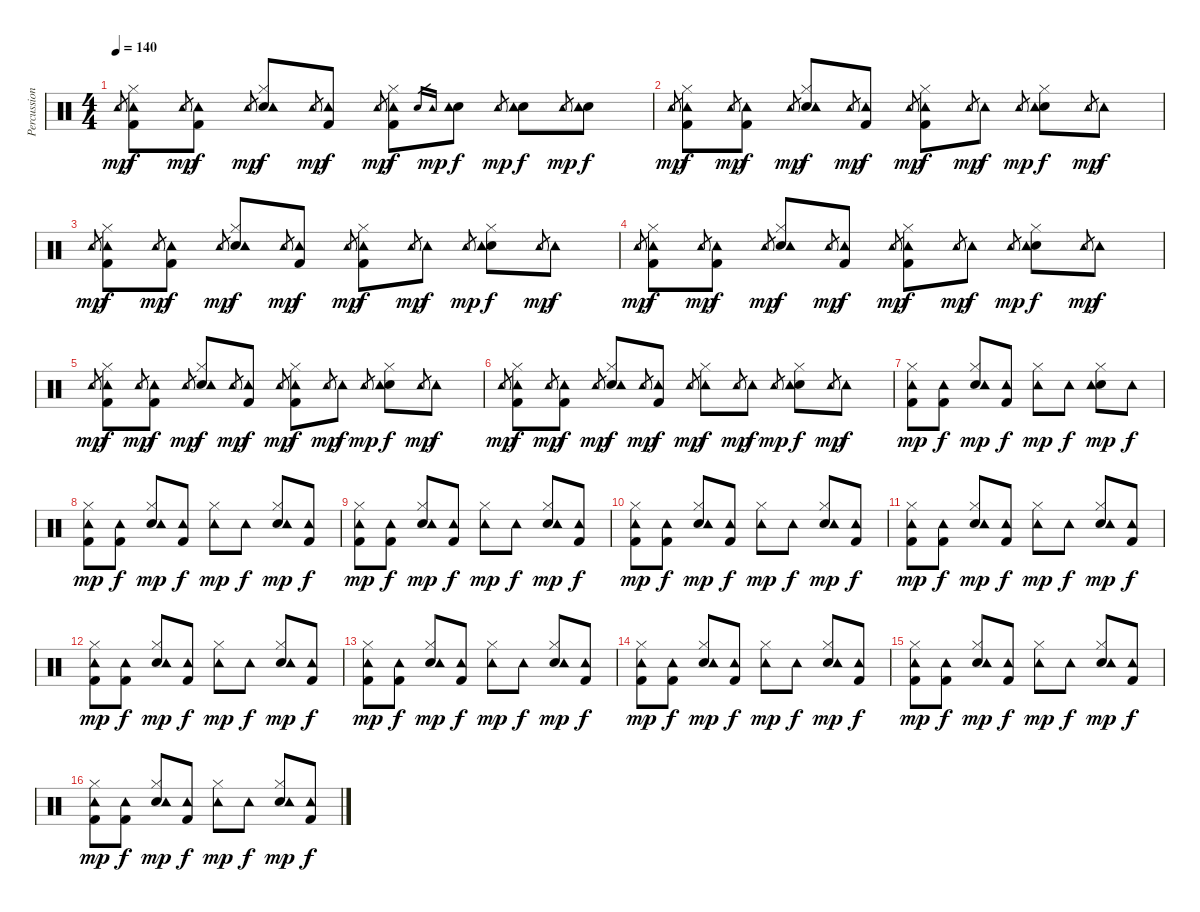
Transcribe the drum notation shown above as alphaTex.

\track ("Percussion" "Percussion") {instrument percussion}
\staff {score}
\articulation defaults
\ts (4 4)
\tempo 140
\clef neutral
\ks c "Tambourine (hit)".8{gr dy mp}
("Kick (hit) 2" "Hi-Hat (closed)" "Tambourine (hit)").8{dy f} "Tambourine (hit)".8{gr dy mp} ("Kick (hit) 2" "Tambourine (hit)").8{dy f} "Tambourine (hit)".8{gr dy mp} ("Snare (hit) 2" "Hi-Hat (closed)" "Tambourine (hit)").8{dy f} "Tambourine (hit)".8{gr dy mp} ("Kick (hit) 2" "Tambourine (hit)").8{dy f} "Tambourine (hit)".8{gr dy mp} ("Kick (hit) 2" "Hi-Hat (closed)" "Tambourine (hit)").8{dy f} "Snare (hit) 2".16{gr} "Tambourine (hit)".16{gr dy mp} ("Snare (hit) 2" "Tambourine (hit)").8{dy f} "Tambourine (hit)".8{gr dy mp} ("Snare (hit) 2" "Tambourine (hit)").8{dy f} "Tambourine (hit)".8{gr dy mp} ("Snare (hit) 2" "Tambourine (hit)").8{dy f} |
"Tambourine (hit)".8{gr dy mp} ("Kick (hit) 2" "Hi-Hat (closed)" "Tambourine (hit)").8{dy f} "Tambourine (hit)".8{gr dy mp} ("Kick (hit) 2" "Tambourine (hit)").8{dy f} "Tambourine (hit)".8{gr dy mp} ("Snare (hit) 2" "Hi-Hat (closed)" "Tambourine (hit)").8{dy f} "Tambourine (hit)".8{gr dy mp} ("Kick (hit) 2" "Tambourine (hit)").8{dy f} "Tambourine (hit)".8{gr dy mp} ("Kick (hit) 2" "Hi-Hat (closed)" "Tambourine (hit)").8{dy f} "Tambourine (hit)".8{gr dy mp} "Tambourine (hit)".8{dy f} "Tambourine (hit)".8{gr dy mp} ("Snare (hit) 2" "Hi-Hat (closed)" "Tambourine (hit)").8{dy f} "Tambourine (hit)".8{gr dy mp} "Tambourine (hit)".8{dy f} |
"Tambourine (hit)".8{gr dy mp} ("Kick (hit) 2" "Hi-Hat (closed)" "Tambourine (hit)").8{dy f} "Tambourine (hit)".8{gr dy mp} ("Kick (hit) 2" "Tambourine (hit)").8{dy f} "Tambourine (hit)".8{gr dy mp} ("Snare (hit) 2" "Hi-Hat (closed)" "Tambourine (hit)").8{dy f} "Tambourine (hit)".8{gr dy mp} ("Kick (hit) 2" "Tambourine (hit)").8{dy f} "Tambourine (hit)".8{gr dy mp} ("Kick (hit) 2" "Hi-Hat (closed)" "Tambourine (hit)").8{dy f} "Tambourine (hit)".8{gr dy mp} "Tambourine (hit)".8{dy f} "Tambourine (hit)".8{gr dy mp} ("Snare (hit) 2" "Hi-Hat (closed)" "Tambourine (hit)").8{dy f} "Tambourine (hit)".8{gr dy mp} "Tambourine (hit)".8{dy f} |
"Tambourine (hit)".8{gr dy mp} ("Kick (hit) 2" "Hi-Hat (closed)" "Tambourine (hit)").8{dy f} "Tambourine (hit)".8{gr dy mp} ("Kick (hit) 2" "Tambourine (hit)").8{dy f} "Tambourine (hit)".8{gr dy mp} ("Snare (hit) 2" "Hi-Hat (closed)" "Tambourine (hit)").8{dy f} "Tambourine (hit)".8{gr dy mp} ("Kick (hit) 2" "Tambourine (hit)").8{dy f} "Tambourine (hit)".8{gr dy mp} ("Kick (hit) 2" "Hi-Hat (closed)" "Tambourine (hit)").8{dy f} "Tambourine (hit)".8{gr dy mp} "Tambourine (hit)".8{dy f} "Tambourine (hit)".8{gr dy mp} ("Snare (hit) 2" "Hi-Hat (closed)" "Tambourine (hit)").8{dy f} "Tambourine (hit)".8{gr dy mp} "Tambourine (hit)".8{dy f} |
"Tambourine (hit)".8{gr dy mp} ("Kick (hit) 2" "Hi-Hat (closed)" "Tambourine (hit)").8{dy f} "Tambourine (hit)".8{gr dy mp} ("Kick (hit) 2" "Tambourine (hit)").8{dy f} "Tambourine (hit)".8{gr dy mp} ("Snare (hit) 2" "Hi-Hat (closed)" "Tambourine (hit)").8{dy f} "Tambourine (hit)".8{gr dy mp} ("Kick (hit) 2" "Tambourine (hit)").8{dy f} "Tambourine (hit)".8{gr dy mp} ("Kick (hit) 2" "Hi-Hat (closed)" "Tambourine (hit)").8{dy f} "Tambourine (hit)".8{gr dy mp} "Tambourine (hit)".8{dy f} "Tambourine (hit)".8{gr dy mp} ("Snare (hit) 2" "Hi-Hat (closed)" "Tambourine (hit)").8{dy f} "Tambourine (hit)".8{gr dy mp} "Tambourine (hit)".8{dy f} |
"Tambourine (hit)".8{gr dy mp} ("Kick (hit) 2" "Hi-Hat (closed)" "Tambourine (hit)").8{dy f} "Tambourine (hit)".8{gr dy mp} ("Kick (hit) 2" "Tambourine (hit)").8{dy f} "Tambourine (hit)".8{gr dy mp} ("Snare (hit) 2" "Hi-Hat (closed)" "Tambourine (hit)").8{dy f} "Tambourine (hit)".8{gr dy mp} ("Kick (hit) 2" "Tambourine (hit)").8{dy f} "Tambourine (hit)".8{gr dy mp} ("Hi-Hat (closed)" "Tambourine (hit)").8{dy f} "Tambourine (hit)".8{gr dy mp} "Tambourine (hit)".8{dy f} "Tambourine (hit)".8{gr dy mp} ("Snare (hit) 2" "Hi-Hat (closed)" "Tambourine (hit)").8{dy f} "Tambourine (hit)".8{gr dy mp} "Tambourine (hit)".8{dy f} |
("Kick (hit) 2" "Hi-Hat (closed)" "Tambourine (hit)").8{dy mp} ("Kick (hit) 2" "Tambourine (hit)").8{dy f} ("Snare (hit) 2" "Hi-Hat (closed)" "Tambourine (hit)").8{dy mp} ("Kick (hit) 2" "Tambourine (hit)").8{dy f} ("Hi-Hat (closed)" "Tambourine (hit)").8{dy mp} "Tambourine (hit)".8{dy f} ("Snare (hit) 2" "Hi-Hat (closed)" "Tambourine (hit)").8{dy mp} "Tambourine (hit)".8{dy f} |
("Kick (hit) 2" "Hi-Hat (closed)" "Tambourine (hit)").8{dy mp} ("Kick (hit) 2" "Tambourine (hit)").8{dy f} ("Snare (hit) 2" "Hi-Hat (closed)" "Tambourine (hit)").8{dy mp} ("Kick (hit) 2" "Tambourine (hit)").8{dy f} ("Hi-Hat (closed)" "Tambourine (hit)").8{dy mp} "Tambourine (hit)".8{dy f} ("Snare (hit) 2" "Hi-Hat (closed)" "Tambourine (hit)").8{dy mp} ("Kick (hit) 2" "Tambourine (hit)").8{dy f} |
("Kick (hit) 2" "Hi-Hat (closed)" "Tambourine (hit)").8{dy mp} ("Kick (hit) 2" "Tambourine (hit)").8{dy f} ("Snare (hit) 2" "Hi-Hat (closed)" "Tambourine (hit)").8{dy mp} ("Kick (hit) 2" "Tambourine (hit)").8{dy f} ("Hi-Hat (closed)" "Tambourine (hit)").8{dy mp} "Tambourine (hit)".8{dy f} ("Snare (hit) 2" "Hi-Hat (closed)" "Tambourine (hit)").8{dy mp} ("Kick (hit) 2" "Tambourine (hit)").8{dy f} |
("Kick (hit) 2" "Hi-Hat (closed)" "Tambourine (hit)").8{dy mp} ("Kick (hit) 2" "Tambourine (hit)").8{dy f} ("Snare (hit) 2" "Hi-Hat (closed)" "Tambourine (hit)").8{dy mp} ("Kick (hit) 2" "Tambourine (hit)").8{dy f} ("Hi-Hat (closed)" "Tambourine (hit)").8{dy mp} "Tambourine (hit)".8{dy f} ("Snare (hit) 2" "Hi-Hat (closed)" "Tambourine (hit)").8{dy mp} ("Kick (hit) 2" "Tambourine (hit)").8{dy f} |
("Kick (hit) 2" "Hi-Hat (closed)" "Tambourine (hit)").8{dy mp} ("Kick (hit) 2" "Tambourine (hit)").8{dy f} ("Snare (hit) 2" "Hi-Hat (closed)" "Tambourine (hit)").8{dy mp} ("Kick (hit) 2" "Tambourine (hit)").8{dy f} ("Hi-Hat (closed)" "Tambourine (hit)").8{dy mp} "Tambourine (hit)".8{dy f} ("Snare (hit) 2" "Hi-Hat (closed)" "Tambourine (hit)").8{dy mp} ("Kick (hit) 2" "Tambourine (hit)").8{dy f} |
("Kick (hit) 2" "Hi-Hat (closed)" "Tambourine (hit)").8{dy mp} ("Kick (hit) 2" "Tambourine (hit)").8{dy f} ("Snare (hit) 2" "Hi-Hat (closed)" "Tambourine (hit)").8{dy mp} ("Kick (hit) 2" "Tambourine (hit)").8{dy f} ("Hi-Hat (closed)" "Tambourine (hit)").8{dy mp} "Tambourine (hit)".8{dy f} ("Snare (hit) 2" "Hi-Hat (closed)" "Tambourine (hit)").8{dy mp} ("Kick (hit) 2" "Tambourine (hit)").8{dy f} |
("Kick (hit) 2" "Hi-Hat (closed)" "Tambourine (hit)").8{dy mp} ("Kick (hit) 2" "Tambourine (hit)").8{dy f} ("Snare (hit) 2" "Hi-Hat (closed)" "Tambourine (hit)").8{dy mp} ("Kick (hit) 2" "Tambourine (hit)").8{dy f} ("Hi-Hat (closed)" "Tambourine (hit)").8{dy mp} "Tambourine (hit)".8{dy f} ("Snare (hit) 2" "Hi-Hat (closed)" "Tambourine (hit)").8{dy mp} ("Kick (hit) 2" "Tambourine (hit)").8{dy f} |
("Kick (hit) 2" "Hi-Hat (closed)" "Tambourine (hit)").8{dy mp} ("Kick (hit) 2" "Tambourine (hit)").8{dy f} ("Snare (hit) 2" "Hi-Hat (closed)" "Tambourine (hit)").8{dy mp} ("Kick (hit) 2" "Tambourine (hit)").8{dy f} ("Hi-Hat (closed)" "Tambourine (hit)").8{dy mp} "Tambourine (hit)".8{dy f} ("Snare (hit) 2" "Hi-Hat (closed)" "Tambourine (hit)").8{dy mp} ("Kick (hit) 2" "Tambourine (hit)").8{dy f} |
("Kick (hit) 2" "Hi-Hat (closed)" "Tambourine (hit)").8{dy mp} ("Kick (hit) 2" "Tambourine (hit)").8{dy f} ("Snare (hit) 2" "Hi-Hat (closed)" "Tambourine (hit)").8{dy mp} ("Kick (hit) 2" "Tambourine (hit)").8{dy f} ("Hi-Hat (closed)" "Tambourine (hit)").8{dy mp} "Tambourine (hit)".8{dy f} ("Snare (hit) 2" "Hi-Hat (closed)" "Tambourine (hit)").8{dy mp} ("Kick (hit) 2" "Tambourine (hit)").8{dy f} |
("Kick (hit) 2" "Hi-Hat (closed)" "Tambourine (hit)").8{dy mp} ("Kick (hit) 2" "Tambourine (hit)").8{dy f} ("Snare (hit) 2" "Hi-Hat (closed)" "Tambourine (hit)").8{dy mp} ("Kick (hit) 2" "Tambourine (hit)").8{dy f} ("Hi-Hat (closed)" "Tambourine (hit)").8{dy mp} "Tambourine (hit)".8{dy f} ("Snare (hit) 2" "Hi-Hat (closed)" "Tambourine (hit)").8{dy mp} ("Kick (hit) 2" "Tambourine (hit)").8{dy f}
